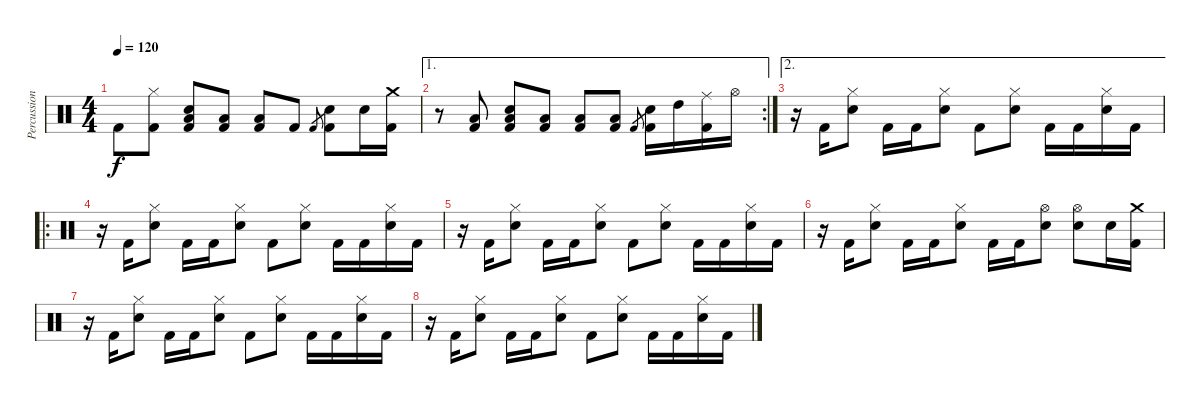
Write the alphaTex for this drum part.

\track ("Percussion" "Percussion") {instrument percussion}
\staff {score}
\articulation defaults
\ts (4 4)
\tempo 120
\clef neutral
\ks c "Kick (hit) 2".8{dy f}
("Hi-Hat (closed)" "Kick (hit) 2").8 ("Electric Snare (hit)" "Low Tom (hit)" "Kick (hit) 2").8 ("Low Tom (hit)" "Kick (hit) 2").8 ("Low Tom (hit)" "Kick (hit) 2").8 "Kick (hit) 2".8 "Kick (hit) 2".8{gr} ("Electric Snare (hit)" "Kick (hit) 2").8 "Electric Snare (hit)".16 ("Crash medium (hit)" "Kick (hit) 2").16 |
\ae 1
\rc 2
r.8 ("Low Tom (hit)" "Kick (hit) 2").8 ("Electric Snare (hit)" "Low Tom (hit)" "Kick (hit) 2").8 ("Low Tom (hit)" "Kick (hit) 2").8 ("Low Tom (hit)" "Kick (hit) 2").8 ("Low Tom (hit)" "Kick (hit) 2").8 "Kick (hit) 2".8{gr} ("Electric Snare (hit)" "Kick (hit) 2").16 "High Tom (hit)".16 ("Ride (middle)" "Kick (hit) 2").16 "Hi-Hat (open)".16 |
\ae 2
r.16 "Kick (hit) 2".16 ("Hi-Hat (closed)" "Electric Snare (hit)").8 "Kick (hit) 2".16 "Kick (hit) 2".16 ("Hi-Hat (closed)" "Electric Snare (hit)").8 "Kick (hit) 2".8 ("Hi-Hat (closed)" "Electric Snare (hit)").8 "Kick (hit) 2".16 "Kick (hit) 2".16 ("Hi-Hat (closed)" "Electric Snare (hit)").16 "Kick (hit) 2".16 |
\ro
r.16 "Kick (hit) 2".16 ("Hi-Hat (closed)" "Electric Snare (hit)").8 "Kick (hit) 2".16 "Kick (hit) 2".16 ("Hi-Hat (closed)" "Electric Snare (hit)").8 "Kick (hit) 2".8 ("Hi-Hat (closed)" "Electric Snare (hit)").8 "Kick (hit) 2".16 "Kick (hit) 2".16 ("Hi-Hat (closed)" "Electric Snare (hit)").16 "Kick (hit) 2".16 |
r.16 "Kick (hit) 2".16 ("Hi-Hat (closed)" "Electric Snare (hit)").8 "Kick (hit) 2".16 "Kick (hit) 2".16 ("Hi-Hat (closed)" "Electric Snare (hit)").8 "Kick (hit) 2".8 ("Hi-Hat (closed)" "Electric Snare (hit)").8 "Kick (hit) 2".16 "Kick (hit) 2".16 ("Hi-Hat (closed)" "Electric Snare (hit)").16 "Kick (hit) 2".16 |
r.16 "Kick (hit) 2".16 ("Hi-Hat (closed)" "Electric Snare (hit)").8 "Kick (hit) 2".16 "Kick (hit) 2".16 ("Hi-Hat (closed)" "Electric Snare (hit)").8 "Kick (hit) 2".16 "Kick (hit) 2".16 ("Hi-Hat (open)" "Electric Snare (hit)").8 ("Hi-Hat (open)" "Electric Snare (hit)").8 "Electric Snare (hit)".16 ("Crash medium (hit)" "Kick (hit) 2").16 |
r.16 "Kick (hit) 2".16 ("Hi-Hat (closed)" "Electric Snare (hit)").8 "Kick (hit) 2".16 "Kick (hit) 2".16 ("Hi-Hat (closed)" "Electric Snare (hit)").8 "Kick (hit) 2".8 ("Hi-Hat (closed)" "Electric Snare (hit)").8 "Kick (hit) 2".16 "Kick (hit) 2".16 ("Hi-Hat (closed)" "Electric Snare (hit)").16 "Kick (hit) 2".16 |
r.16 "Kick (hit) 2".16 ("Hi-Hat (closed)" "Electric Snare (hit)").8 "Kick (hit) 2".16 "Kick (hit) 2".16 ("Hi-Hat (closed)" "Electric Snare (hit)").8 "Kick (hit) 2".8 ("Hi-Hat (closed)" "Electric Snare (hit)").8 "Kick (hit) 2".16 "Kick (hit) 2".16 ("Hi-Hat (closed)" "Electric Snare (hit)").16 "Kick (hit) 2".16
